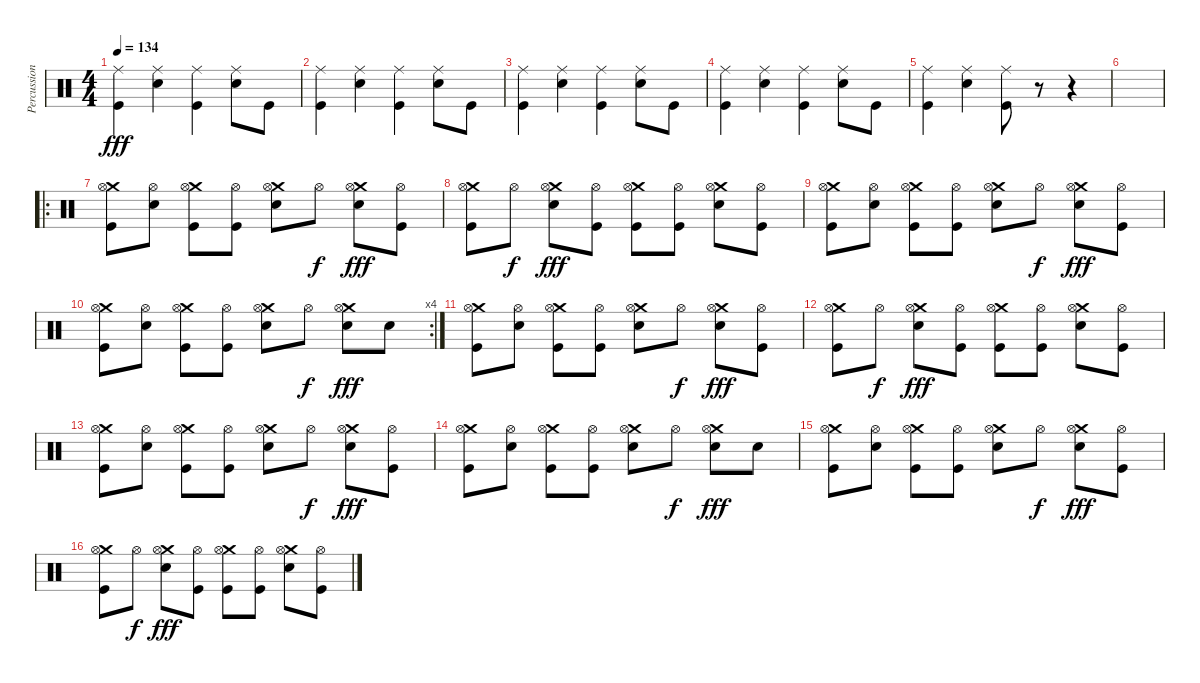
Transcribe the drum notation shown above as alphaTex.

\track ("Percussion" "Percussion") {instrument percussion}
\staff {score}
\articulation defaults
\ts (4 4)
\tempo 134
\clef neutral
\ks c
("Ride (middle)" "Kick (hit)").4{dy fff} ("Ride (middle)" "Snare (hit) 2").4 ("Ride (middle)" "Kick (hit)").4 ("Ride (middle)" "Snare (hit) 2").8 "Kick (hit)".8 |
("Ride (middle)" "Kick (hit)").4 ("Ride (middle)" "Snare (hit) 2").4 ("Ride (middle)" "Kick (hit)").4 ("Ride (middle)" "Snare (hit) 2").8 "Kick (hit)".8 |
("Ride (middle)" "Kick (hit)").4 ("Ride (middle)" "Snare (hit) 2").4 ("Ride (middle)" "Kick (hit)").4 ("Ride (middle)" "Snare (hit) 2").8 "Kick (hit)".8 |
("Ride (middle)" "Kick (hit)").4 ("Ride (middle)" "Snare (hit) 2").4 ("Ride (middle)" "Kick (hit)").4 ("Ride (middle)" "Snare (hit) 2").8 "Kick (hit)".8 |
("Ride (middle)" "Kick (hit)").4 ("Ride (middle)" "Snare (hit) 2").4 ("Ride (middle)" "Kick (hit)").8 r.8 r.4 |
|
\ro
("Crash medium (hit)" "Kick (hit)" "Hi-Hat (open)").8{volume 15} ("Snare (hit) 2" "Hi-Hat (open)").8 ("Crash medium (hit)" "Kick (hit)" "Hi-Hat (open)").8 ("Kick (hit)" "Hi-Hat (open)").8 ("Crash medium (hit)" "Snare (hit) 2" "Hi-Hat (open)").8 "Hi-Hat (open)".8{dy f} ("Crash medium (hit)" "Snare (hit) 2" "Hi-Hat (open)").8{dy fff} ("Kick (hit)" "Hi-Hat (open)").8 |
("Crash medium (hit)" "Kick (hit)" "Hi-Hat (open)").8 "Hi-Hat (open)".8{dy f} ("Crash medium (hit)" "Snare (hit) 2" "Hi-Hat (open)").8{dy fff} ("Kick (hit)" "Hi-Hat (open)").8 ("Crash medium (hit)" "Kick (hit)" "Hi-Hat (open)").8 ("Kick (hit)" "Hi-Hat (open)").8 ("Crash medium (hit)" "Snare (hit) 2" "Hi-Hat (open)").8 ("Kick (hit)" "Hi-Hat (open)").8 |
("Crash medium (hit)" "Kick (hit)" "Hi-Hat (open)").8 ("Snare (hit) 2" "Hi-Hat (open)").8 ("Crash medium (hit)" "Kick (hit)" "Hi-Hat (open)").8 ("Kick (hit)" "Hi-Hat (open)").8 ("Crash medium (hit)" "Snare (hit) 2" "Hi-Hat (open)").8 "Hi-Hat (open)".8{dy f} ("Crash medium (hit)" "Snare (hit) 2" "Hi-Hat (open)").8{dy fff} ("Kick (hit)" "Hi-Hat (open)").8 |
\rc 4
("Crash medium (hit)" "Kick (hit)" "Hi-Hat (open)").8 ("Snare (hit) 2" "Hi-Hat (open)").8 ("Crash medium (hit)" "Kick (hit)" "Hi-Hat (open)").8 ("Kick (hit)" "Hi-Hat (open)").8 ("Crash medium (hit)" "Snare (hit) 2" "Hi-Hat (open)").8 "Hi-Hat (open)".8{dy f} ("Crash medium (hit)" "Snare (hit) 2" "Hi-Hat (open)").8{dy fff} "Snare (hit) 2".8 |
("Crash medium (hit)" "Kick (hit)" "Hi-Hat (open)").8{volume 15} ("Snare (hit) 2" "Hi-Hat (open)").8 ("Crash medium (hit)" "Kick (hit)" "Hi-Hat (open)").8 ("Kick (hit)" "Hi-Hat (open)").8 ("Crash medium (hit)" "Snare (hit) 2" "Hi-Hat (open)").8 "Hi-Hat (open)".8{dy f} ("Crash medium (hit)" "Snare (hit) 2" "Hi-Hat (open)").8{dy fff} ("Kick (hit)" "Hi-Hat (open)").8 |
("Crash medium (hit)" "Kick (hit)" "Hi-Hat (open)").8 "Hi-Hat (open)".8{dy f} ("Crash medium (hit)" "Snare (hit) 2" "Hi-Hat (open)").8{dy fff} ("Kick (hit)" "Hi-Hat (open)").8 ("Crash medium (hit)" "Kick (hit)" "Hi-Hat (open)").8 ("Kick (hit)" "Hi-Hat (open)").8 ("Crash medium (hit)" "Snare (hit) 2" "Hi-Hat (open)").8 ("Kick (hit)" "Hi-Hat (open)").8 |
("Crash medium (hit)" "Kick (hit)" "Hi-Hat (open)").8 ("Snare (hit) 2" "Hi-Hat (open)").8 ("Crash medium (hit)" "Kick (hit)" "Hi-Hat (open)").8 ("Kick (hit)" "Hi-Hat (open)").8 ("Crash medium (hit)" "Snare (hit) 2" "Hi-Hat (open)").8 "Hi-Hat (open)".8{dy f} ("Crash medium (hit)" "Snare (hit) 2" "Hi-Hat (open)").8{dy fff} ("Kick (hit)" "Hi-Hat (open)").8 |
("Crash medium (hit)" "Kick (hit)" "Hi-Hat (open)").8 ("Snare (hit) 2" "Hi-Hat (open)").8 ("Crash medium (hit)" "Kick (hit)" "Hi-Hat (open)").8 ("Kick (hit)" "Hi-Hat (open)").8 ("Crash medium (hit)" "Snare (hit) 2" "Hi-Hat (open)").8 "Hi-Hat (open)".8{dy f} ("Crash medium (hit)" "Snare (hit) 2" "Hi-Hat (open)").8{dy fff} "Snare (hit) 2".8 |
("Crash medium (hit)" "Kick (hit)" "Hi-Hat (open)").8{volume 15} ("Snare (hit) 2" "Hi-Hat (open)").8 ("Crash medium (hit)" "Kick (hit)" "Hi-Hat (open)").8 ("Kick (hit)" "Hi-Hat (open)").8 ("Crash medium (hit)" "Snare (hit) 2" "Hi-Hat (open)").8 "Hi-Hat (open)".8{dy f} ("Crash medium (hit)" "Snare (hit) 2" "Hi-Hat (open)").8{dy fff} ("Kick (hit)" "Hi-Hat (open)").8 |
("Crash medium (hit)" "Kick (hit)" "Hi-Hat (open)").8 "Hi-Hat (open)".8{dy f} ("Crash medium (hit)" "Snare (hit) 2" "Hi-Hat (open)").8{dy fff} ("Kick (hit)" "Hi-Hat (open)").8 ("Crash medium (hit)" "Kick (hit)" "Hi-Hat (open)").8 ("Kick (hit)" "Hi-Hat (open)").8 ("Crash medium (hit)" "Snare (hit) 2" "Hi-Hat (open)").8 ("Kick (hit)" "Hi-Hat (open)").8
